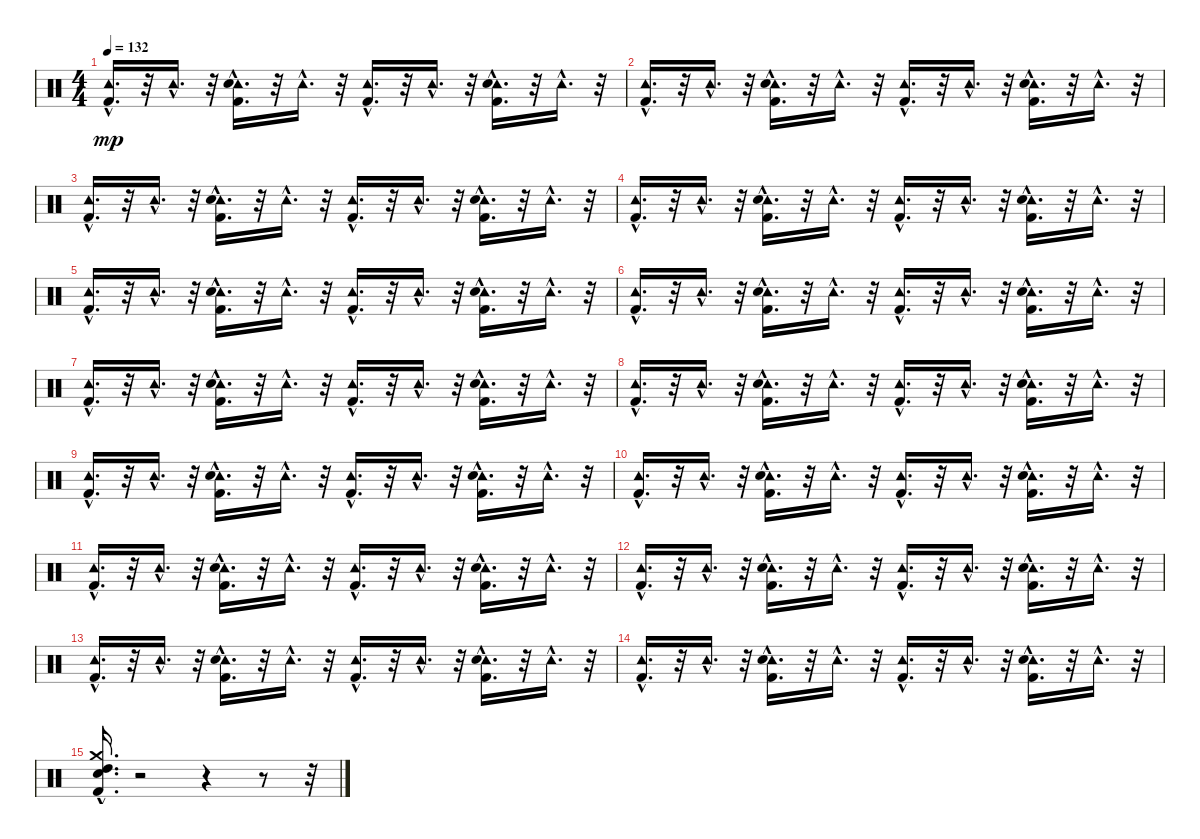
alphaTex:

\track "" {instrument percussion}
\staff {score}
\articulation defaults
\ts (4 4)
\tempo 132
\clef neutral
\ks c
("Tambourine (hit)"{hac} "Kick (hit) 2"{hac}).16{d dy mp} r.32 "Tambourine (hit)"{hac}.16{d} r.32 ("Tambourine (hit)"{hac} "Snare (hit) 2"{hac} "Kick (hit) 2"{hac}).16{d} r.32 "Tambourine (hit)"{hac}.16{d} r.32 ("Tambourine (hit)"{hac} "Kick (hit) 2"{hac}).16{d} r.32 "Tambourine (hit)"{hac}.16{d} r.32 ("Tambourine (hit)"{hac} "Kick (hit) 2"{hac} "Snare (hit) 2"{hac}).16{d} r.32 "Tambourine (hit)"{hac}.16{d} r.32 |
("Tambourine (hit)"{hac} "Kick (hit) 2"{hac}).16{d} r.32 "Tambourine (hit)"{hac}.16{d} r.32 ("Tambourine (hit)"{hac} "Snare (hit) 2"{hac} "Kick (hit) 2"{hac}).16{d} r.32 "Tambourine (hit)"{hac}.16{d} r.32 ("Tambourine (hit)"{hac} "Kick (hit) 2"{hac}).16{d} r.32 "Tambourine (hit)"{hac}.16{d} r.32 ("Tambourine (hit)"{hac} "Kick (hit) 2"{hac} "Snare (hit) 2"{hac}).16{d} r.32 "Tambourine (hit)"{hac}.16{d} r.32 |
("Tambourine (hit)"{hac} "Kick (hit) 2"{hac}).16{d} r.32 "Tambourine (hit)"{hac}.16{d} r.32 ("Tambourine (hit)"{hac} "Snare (hit) 2"{hac} "Kick (hit) 2"{hac}).16{d} r.32 "Tambourine (hit)"{hac}.16{d} r.32 ("Tambourine (hit)"{hac} "Kick (hit) 2"{hac}).16{d} r.32 "Tambourine (hit)"{hac}.16{d} r.32 ("Tambourine (hit)"{hac} "Kick (hit) 2"{hac} "Snare (hit) 2"{hac}).16{d} r.32 "Tambourine (hit)"{hac}.16{d} r.32 |
("Tambourine (hit)"{hac} "Kick (hit) 2"{hac}).16{d} r.32 "Tambourine (hit)"{hac}.16{d} r.32 ("Tambourine (hit)"{hac} "Snare (hit) 2"{hac} "Kick (hit) 2"{hac}).16{d} r.32 "Tambourine (hit)"{hac}.16{d} r.32 ("Tambourine (hit)"{hac} "Kick (hit) 2"{hac}).16{d} r.32 "Tambourine (hit)"{hac}.16{d} r.32 ("Tambourine (hit)"{hac} "Kick (hit) 2"{hac} "Snare (hit) 2"{hac}).16{d} r.32 "Tambourine (hit)"{hac}.16{d} r.32 |
("Tambourine (hit)"{hac} "Kick (hit) 2"{hac}).16{d} r.32 "Tambourine (hit)"{hac}.16{d} r.32 ("Tambourine (hit)"{hac} "Snare (hit) 2"{hac} "Kick (hit) 2"{hac}).16{d} r.32 "Tambourine (hit)"{hac}.16{d} r.32 ("Tambourine (hit)"{hac} "Kick (hit) 2"{hac}).16{d} r.32 "Tambourine (hit)"{hac}.16{d} r.32 ("Tambourine (hit)"{hac} "Kick (hit) 2"{hac} "Snare (hit) 2"{hac}).16{d} r.32 "Tambourine (hit)"{hac}.16{d} r.32 |
("Tambourine (hit)"{hac} "Kick (hit) 2"{hac}).16{d} r.32 "Tambourine (hit)"{hac}.16{d} r.32 ("Tambourine (hit)"{hac} "Snare (hit) 2"{hac} "Kick (hit) 2"{hac}).16{d} r.32 "Tambourine (hit)"{hac}.16{d} r.32 ("Tambourine (hit)"{hac} "Kick (hit) 2"{hac}).16{d} r.32 "Tambourine (hit)"{hac}.16{d} r.32 ("Tambourine (hit)"{hac} "Kick (hit) 2"{hac} "Snare (hit) 2"{hac}).16{d} r.32 "Tambourine (hit)"{hac}.16{d} r.32 |
("Tambourine (hit)"{hac} "Kick (hit) 2"{hac}).16{d} r.32 "Tambourine (hit)"{hac}.16{d} r.32 ("Tambourine (hit)"{hac} "Snare (hit) 2"{hac} "Kick (hit) 2"{hac}).16{d} r.32 "Tambourine (hit)"{hac}.16{d} r.32 ("Tambourine (hit)"{hac} "Kick (hit) 2"{hac}).16{d} r.32 "Tambourine (hit)"{hac}.16{d} r.32 ("Tambourine (hit)"{hac} "Kick (hit) 2"{hac} "Snare (hit) 2"{hac}).16{d} r.32 "Tambourine (hit)"{hac}.16{d} r.32 |
("Tambourine (hit)"{hac} "Kick (hit) 2"{hac}).16{d} r.32 "Tambourine (hit)"{hac}.16{d} r.32 ("Tambourine (hit)"{hac} "Snare (hit) 2"{hac} "Kick (hit) 2"{hac}).16{d} r.32 "Tambourine (hit)"{hac}.16{d} r.32 ("Tambourine (hit)"{hac} "Kick (hit) 2"{hac}).16{d} r.32 "Tambourine (hit)"{hac}.16{d} r.32 ("Tambourine (hit)"{hac} "Kick (hit) 2"{hac} "Snare (hit) 2"{hac}).16{d} r.32 "Tambourine (hit)"{hac}.16{d} r.32 |
("Tambourine (hit)"{hac} "Kick (hit) 2"{hac}).16{d} r.32 "Tambourine (hit)"{hac}.16{d} r.32 ("Tambourine (hit)"{hac} "Snare (hit) 2"{hac} "Kick (hit) 2"{hac}).16{d} r.32 "Tambourine (hit)"{hac}.16{d} r.32 ("Tambourine (hit)"{hac} "Kick (hit) 2"{hac}).16{d} r.32 "Tambourine (hit)"{hac}.16{d} r.32 ("Tambourine (hit)"{hac} "Kick (hit) 2"{hac} "Snare (hit) 2"{hac}).16{d} r.32 "Tambourine (hit)"{hac}.16{d} r.32 |
("Tambourine (hit)"{hac} "Kick (hit) 2"{hac}).16{d} r.32 "Tambourine (hit)"{hac}.16{d} r.32 ("Tambourine (hit)"{hac} "Snare (hit) 2"{hac} "Kick (hit) 2"{hac}).16{d} r.32 "Tambourine (hit)"{hac}.16{d} r.32 ("Tambourine (hit)"{hac} "Kick (hit) 2"{hac}).16{d} r.32 "Tambourine (hit)"{hac}.16{d} r.32 ("Tambourine (hit)"{hac} "Kick (hit) 2"{hac} "Snare (hit) 2"{hac}).16{d} r.32 "Tambourine (hit)"{hac}.16{d} r.32 |
("Tambourine (hit)"{hac} "Kick (hit) 2"{hac}).16{d} r.32 "Tambourine (hit)"{hac}.16{d} r.32 ("Tambourine (hit)"{hac} "Snare (hit) 2"{hac} "Kick (hit) 2"{hac}).16{d} r.32 "Tambourine (hit)"{hac}.16{d} r.32 ("Tambourine (hit)"{hac} "Kick (hit) 2"{hac}).16{d} r.32 "Tambourine (hit)"{hac}.16{d} r.32 ("Tambourine (hit)"{hac} "Kick (hit) 2"{hac} "Snare (hit) 2"{hac}).16{d} r.32 "Tambourine (hit)"{hac}.16{d} r.32 |
("Tambourine (hit)"{hac} "Kick (hit) 2"{hac}).16{d} r.32 "Tambourine (hit)"{hac}.16{d} r.32 ("Tambourine (hit)"{hac} "Snare (hit) 2"{hac} "Kick (hit) 2"{hac}).16{d} r.32 "Tambourine (hit)"{hac}.16{d} r.32 ("Tambourine (hit)"{hac} "Kick (hit) 2"{hac}).16{d} r.32 "Tambourine (hit)"{hac}.16{d} r.32 ("Tambourine (hit)"{hac} "Kick (hit) 2"{hac} "Snare (hit) 2"{hac}).16{d} r.32 "Tambourine (hit)"{hac}.16{d} r.32 |
("Tambourine (hit)"{hac} "Kick (hit) 2"{hac}).16{d} r.32 "Tambourine (hit)"{hac}.16{d} r.32 ("Tambourine (hit)"{hac} "Snare (hit) 2"{hac} "Kick (hit) 2"{hac}).16{d} r.32 "Tambourine (hit)"{hac}.16{d} r.32 ("Tambourine (hit)"{hac} "Kick (hit) 2"{hac}).16{d} r.32 "Tambourine (hit)"{hac}.16{d} r.32 ("Tambourine (hit)"{hac} "Kick (hit) 2"{hac} "Snare (hit) 2"{hac}).16{d} r.32 "Tambourine (hit)"{hac}.16{d} r.32 |
("Tambourine (hit)"{hac} "Kick (hit) 2"{hac}).16{d} r.32 "Tambourine (hit)"{hac}.16{d} r.32 ("Tambourine (hit)"{hac} "Snare (hit) 2"{hac} "Kick (hit) 2"{hac}).16{d} r.32 "Tambourine (hit)"{hac}.16{d} r.32 ("Tambourine (hit)"{hac} "Kick (hit) 2"{hac}).16{d} r.32 "Tambourine (hit)"{hac}.16{d} r.32 ("Tambourine (hit)"{hac} "Kick (hit) 2"{hac} "Snare (hit) 2"{hac}).16{d} r.32 "Tambourine (hit)"{hac}.16{d} r.32 |
("Crash medium (hit)"{hac} "Snare (hit) 2"{hac} "Kick (hit) 2"{hac} "High Tom (hit)"{hac}).16{d} r.2 r.4 r.8 r.32
